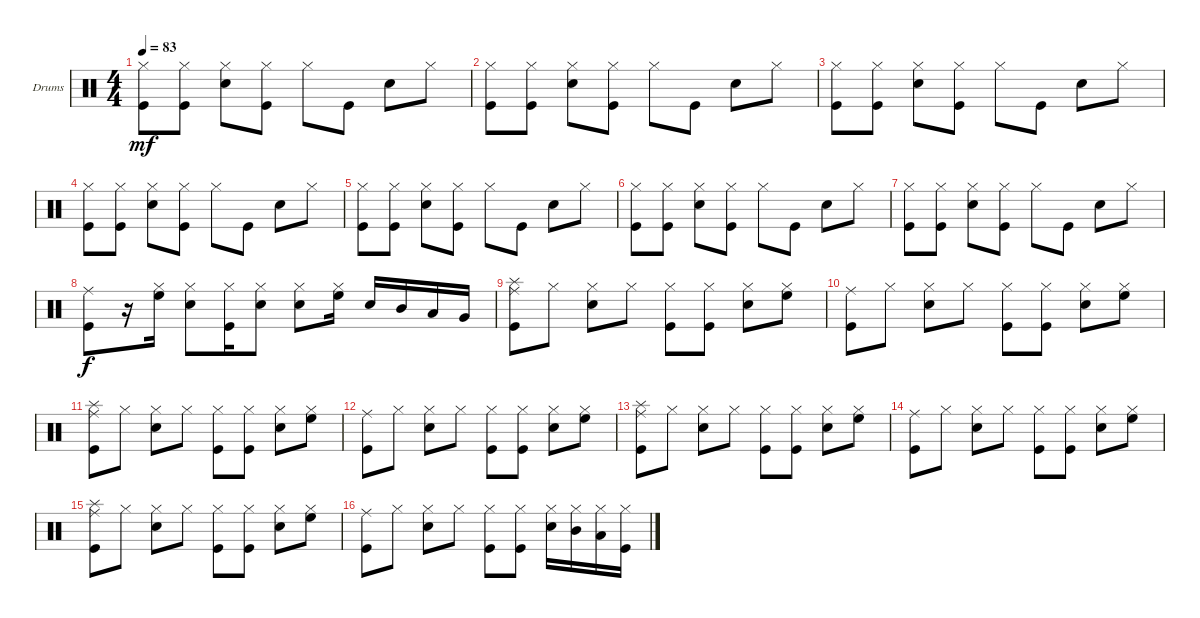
\defaultSystemsLayout 4
\bracketExtendMode groupsimilarinstruments
\firstSystemTrackNameOrientation horizontal
\otherSystemsTrackNameOrientation horizontal
\track ("Reza" "Drums") {instrument percussion}
\staff {score}
\articulation defaults
\ts (4 4)
\tempo 83
\clef neutral
\ks c
("Kick (hit)" "Hi-Hat (closed)").8{dy mf} ("Kick (hit)" "Hi-Hat (closed)").8 ("Snare (hit) 2" "Hi-Hat (closed)").8 ("Kick (hit)" "Hi-Hat (closed)").8 "Hi-Hat (closed)".8 "Kick (hit)".8 "Snare (hit) 2".8 "Hi-Hat (closed)".8 |
("Kick (hit)" "Hi-Hat (closed)").8 ("Kick (hit)" "Hi-Hat (closed)").8 ("Snare (hit) 2" "Hi-Hat (closed)").8 ("Kick (hit)" "Hi-Hat (closed)").8 "Hi-Hat (closed)".8 "Kick (hit)".8 "Snare (hit) 2".8 "Hi-Hat (closed)".8 |
("Kick (hit)" "Hi-Hat (closed)").8 ("Kick (hit)" "Hi-Hat (closed)").8 ("Snare (hit) 2" "Hi-Hat (closed)").8 ("Kick (hit)" "Hi-Hat (closed)").8 "Hi-Hat (closed)".8 "Kick (hit)".8 "Snare (hit) 2".8 "Hi-Hat (closed)".8 |
("Kick (hit)" "Hi-Hat (closed)").8 ("Kick (hit)" "Hi-Hat (closed)").8 ("Snare (hit) 2" "Hi-Hat (closed)").8 ("Kick (hit)" "Hi-Hat (closed)").8 "Hi-Hat (closed)".8 "Kick (hit)".8 "Snare (hit) 2".8 "Hi-Hat (closed)".8 |
("Kick (hit)" "Hi-Hat (closed)").8 ("Kick (hit)" "Hi-Hat (closed)").8 ("Snare (hit) 2" "Hi-Hat (closed)").8 ("Kick (hit)" "Hi-Hat (closed)").8 "Hi-Hat (closed)".8 "Kick (hit)".8 "Snare (hit) 2".8 "Hi-Hat (closed)".8 |
("Kick (hit)" "Hi-Hat (closed)").8 ("Kick (hit)" "Hi-Hat (closed)").8 ("Snare (hit) 2" "Hi-Hat (closed)").8 ("Kick (hit)" "Hi-Hat (closed)").8 "Hi-Hat (closed)".8 "Kick (hit)".8 "Snare (hit) 2".8 "Hi-Hat (closed)".8 |
("Kick (hit)" "Hi-Hat (closed)").8 ("Kick (hit)" "Hi-Hat (closed)").8 ("Snare (hit) 2" "Hi-Hat (closed)").8 ("Kick (hit)" "Hi-Hat (closed)").8 "Hi-Hat (closed)".8 "Kick (hit)".8 "Snare (hit) 2".8 "Hi-Hat (closed)".8 |
("Kick (hit)" "Ride (middle)").8{dy f} r.16 ("Hi-Hat (closed)" "High Floor Tom (hit)").16 ("Hi-Hat (closed)" "Snare (hit) 2").8 ("Hi-Hat (closed)" "Kick (hit)").16 ("Hi-Hat (closed)" "Snare (hit) 2").8 ("Hi-Hat (closed)" "Snare (hit) 2").8 ("Hi-Hat (closed)" "High Floor Tom (hit)").16 "Snare (hit) 2".16 "Mid Tom (hit)".16 "Low Tom (hit)".16 "Very Low Tom (hit)".16 |
("Kick (hit)" "Splash (hit)" "Ride (middle)").8 "Hi-Hat (closed)".8 ("Hi-Hat (closed)" "Snare (hit) 2").8 "Hi-Hat (closed)".8 ("Hi-Hat (closed)" "Kick (hit)").8 ("Hi-Hat (closed)" "Kick (hit)").8 ("Hi-Hat (closed)" "Snare (hit) 2").8 ("Hi-Hat (closed)" "High Floor Tom (hit)").8 |
("Kick (hit)" "Ride (middle)").8 "Hi-Hat (closed)".8 ("Hi-Hat (closed)" "Snare (hit) 2").8 "Hi-Hat (closed)".8 ("Hi-Hat (closed)" "Kick (hit)").8 ("Hi-Hat (closed)" "Kick (hit)").8 ("Hi-Hat (closed)" "Snare (hit) 2").8 ("Hi-Hat (closed)" "High Floor Tom (hit)").8 |
("Kick (hit)" "Splash (hit)" "Ride (middle)").8 "Hi-Hat (closed)".8 ("Hi-Hat (closed)" "Snare (hit) 2").8 "Hi-Hat (closed)".8 ("Hi-Hat (closed)" "Kick (hit)").8 ("Hi-Hat (closed)" "Kick (hit)").8 ("Hi-Hat (closed)" "Snare (hit) 2").8 ("Hi-Hat (closed)" "High Floor Tom (hit)").8 |
("Kick (hit)" "Ride (middle)").8 "Hi-Hat (closed)".8 ("Hi-Hat (closed)" "Snare (hit) 2").8 "Hi-Hat (closed)".8 ("Hi-Hat (closed)" "Kick (hit)").8 ("Hi-Hat (closed)" "Kick (hit)").8 ("Hi-Hat (closed)" "Snare (hit) 2").8 ("Hi-Hat (closed)" "High Floor Tom (hit)").8 |
("Kick (hit)" "Splash (hit)" "Ride (middle)").8 "Hi-Hat (closed)".8 ("Hi-Hat (closed)" "Snare (hit) 2").8 "Hi-Hat (closed)".8 ("Hi-Hat (closed)" "Kick (hit)").8 ("Hi-Hat (closed)" "Kick (hit)").8 ("Hi-Hat (closed)" "Snare (hit) 2").8 ("Hi-Hat (closed)" "High Floor Tom (hit)").8 |
("Kick (hit)" "Ride (middle)").8 "Hi-Hat (closed)".8 ("Hi-Hat (closed)" "Snare (hit) 2").8 "Hi-Hat (closed)".8 ("Hi-Hat (closed)" "Kick (hit)").8 ("Hi-Hat (closed)" "Kick (hit)").8 ("Hi-Hat (closed)" "Snare (hit) 2").8 ("Hi-Hat (closed)" "High Floor Tom (hit)").8 |
("Kick (hit)" "Splash (hit)" "Ride (middle)").8 "Hi-Hat (closed)".8 ("Hi-Hat (closed)" "Snare (hit) 2").8 "Hi-Hat (closed)".8 ("Hi-Hat (closed)" "Kick (hit)").8 ("Hi-Hat (closed)" "Kick (hit)").8 ("Hi-Hat (closed)" "Snare (hit) 2").8 ("Hi-Hat (closed)" "High Floor Tom (hit)").8 |
("Kick (hit)" "Ride (middle)").8 "Hi-Hat (closed)".8 ("Hi-Hat (closed)" "Snare (hit) 2").8 "Hi-Hat (closed)".8 ("Hi-Hat (closed)" "Kick (hit)").8 ("Hi-Hat (closed)" "Kick (hit)").8 ("Hi-Hat (closed)" "Snare (hit) 2").16 ("Hi-Hat (closed)" "Mid Tom (hit)").16 ("Hi-Hat (closed)" "Low Tom (hit)").16 ("Hi-Hat (closed)" "Kick (hit)").16
